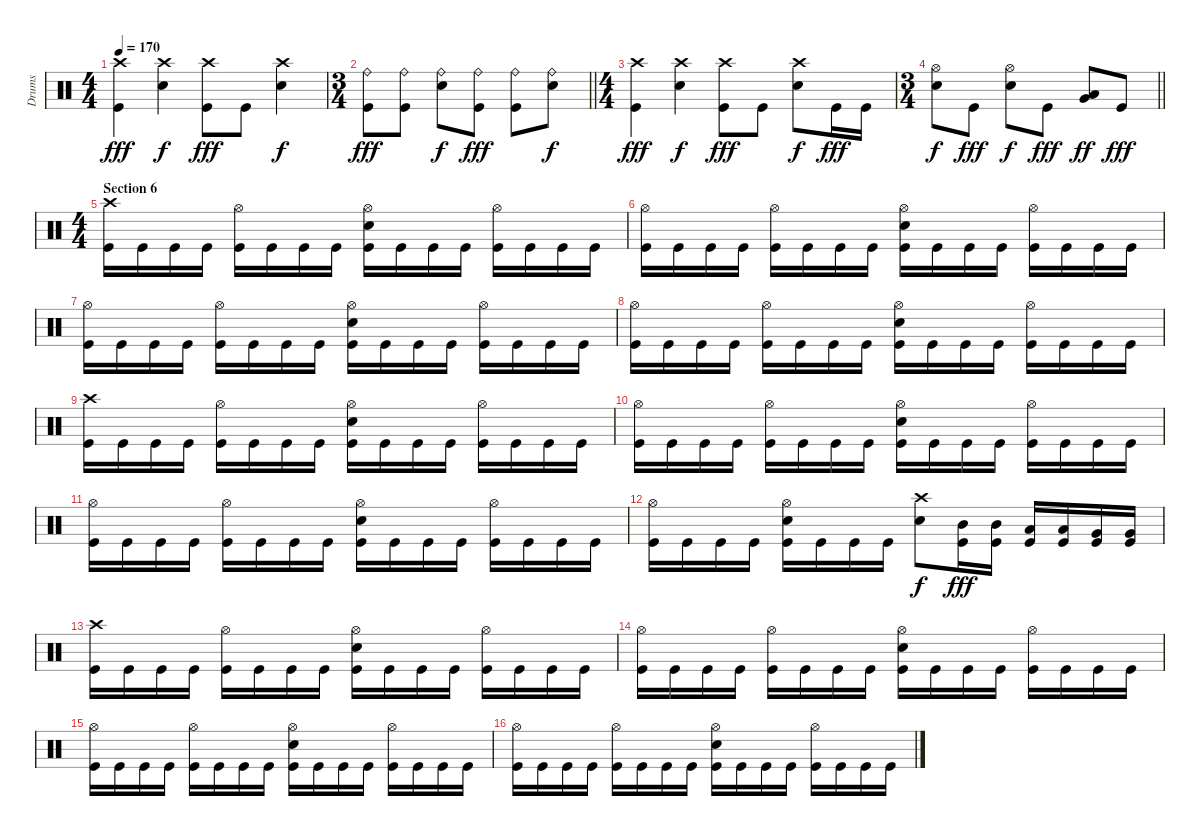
\track ("Drums" "Drums") {instrument percussion}
\staff {score}
\articulation defaults
\ts (4 4)
\tempo 170
\clef neutral
\ks c
("Crash high (hit)" "Kick (hit)").4{dy fff} ("Crash high (hit)" "Snare (hit) 2").4{dy f} ("Crash high (hit)" "Kick (hit)").8{dy fff} "Kick (hit)".8 ("Crash high (hit)" "Snare (hit) 2").4{dy f} |
\ts (3 4)
\barLineRight lightlight
("Ride (bell)" "Kick (hit)").8{dy fff} ("Ride (bell)" "Kick (hit)").8 ("Ride (bell)" "Snare (hit) 2").8{dy f} ("Ride (bell)" "Kick (hit)").8{dy fff} ("Ride (bell)" "Kick (hit)").8 ("Ride (bell)" "Snare (hit) 2").8{dy f} |
\ts (4 4)
("Crash high (hit)" "Kick (hit)").4{dy fff} ("Crash high (hit)" "Snare (hit) 2").4{dy f} ("Crash high (hit)" "Kick (hit)").8{dy fff} "Kick (hit)".8 ("Crash high (hit)" "Snare (hit) 2").8{dy f} "Kick (hit)".16{dy fff} "Kick (hit)".16 |
\ts (3 4)
\barLineRight lightlight
("Hi-Hat (open)" "Snare (hit) 2").8{dy f} "Kick (hit)".8{dy fff} ("Hi-Hat (open)" "Snare (hit) 2").8{dy f} "Kick (hit)".8{dy fff} ("Low Tom (hit)" "Very Low Tom (hit)").8{bd 120 dy ff} "Kick (hit)".8{dy fff} |
\ts (4 4)
\section ("" "Section 6")
("Crash high (hit)" "Kick (hit)").16 "Kick (hit)".16 "Kick (hit)".16 "Kick (hit)".16 ("Hi-Hat (open)" "Kick (hit)").16 "Kick (hit)".16 "Kick (hit)".16 "Kick (hit)".16 ("Hi-Hat (open)" "Snare (hit) 2" "Kick (hit)").16 "Kick (hit)".16 "Kick (hit)".16 "Kick (hit)".16 ("Hi-Hat (open)" "Kick (hit)").16 "Kick (hit)".16 "Kick (hit)".16 "Kick (hit)".16 |
("Hi-Hat (open)" "Kick (hit)").16 "Kick (hit)".16 "Kick (hit)".16 "Kick (hit)".16 ("Hi-Hat (open)" "Kick (hit)").16 "Kick (hit)".16 "Kick (hit)".16 "Kick (hit)".16 ("Hi-Hat (open)" "Snare (hit) 2" "Kick (hit)").16 "Kick (hit)".16 "Kick (hit)".16 "Kick (hit)".16 ("Hi-Hat (open)" "Kick (hit)").16 "Kick (hit)".16 "Kick (hit)".16 "Kick (hit)".16 |
("Hi-Hat (open)" "Kick (hit)").16 "Kick (hit)".16 "Kick (hit)".16 "Kick (hit)".16 ("Hi-Hat (open)" "Kick (hit)").16 "Kick (hit)".16 "Kick (hit)".16 "Kick (hit)".16 ("Hi-Hat (open)" "Snare (hit) 2" "Kick (hit)").16 "Kick (hit)".16 "Kick (hit)".16 "Kick (hit)".16 ("Hi-Hat (open)" "Kick (hit)").16 "Kick (hit)".16 "Kick (hit)".16 "Kick (hit)".16 |
("Hi-Hat (open)" "Kick (hit)").16 "Kick (hit)".16 "Kick (hit)".16 "Kick (hit)".16 ("Hi-Hat (open)" "Kick (hit)").16 "Kick (hit)".16 "Kick (hit)".16 "Kick (hit)".16 ("Hi-Hat (open)" "Snare (hit) 2" "Kick (hit)").16 "Kick (hit)".16 "Kick (hit)".16 "Kick (hit)".16 ("Hi-Hat (open)" "Kick (hit)").16 "Kick (hit)".16 "Kick (hit)".16 "Kick (hit)".16 |
("Crash high (hit)" "Kick (hit)").16 "Kick (hit)".16 "Kick (hit)".16 "Kick (hit)".16 ("Hi-Hat (open)" "Kick (hit)").16 "Kick (hit)".16 "Kick (hit)".16 "Kick (hit)".16 ("Hi-Hat (open)" "Snare (hit) 2" "Kick (hit)").16 "Kick (hit)".16 "Kick (hit)".16 "Kick (hit)".16 ("Hi-Hat (open)" "Kick (hit)").16 "Kick (hit)".16 "Kick (hit)".16 "Kick (hit)".16 |
("Hi-Hat (open)" "Kick (hit)").16 "Kick (hit)".16 "Kick (hit)".16 "Kick (hit)".16 ("Hi-Hat (open)" "Kick (hit)").16 "Kick (hit)".16 "Kick (hit)".16 "Kick (hit)".16 ("Hi-Hat (open)" "Snare (hit) 2" "Kick (hit)").16 "Kick (hit)".16 "Kick (hit)".16 "Kick (hit)".16 ("Hi-Hat (open)" "Kick (hit)").16 "Kick (hit)".16 "Kick (hit)".16 "Kick (hit)".16 |
("Hi-Hat (open)" "Kick (hit)").16 "Kick (hit)".16 "Kick (hit)".16 "Kick (hit)".16 ("Hi-Hat (open)" "Kick (hit)").16 "Kick (hit)".16 "Kick (hit)".16 "Kick (hit)".16 ("Hi-Hat (open)" "Snare (hit) 2" "Kick (hit)").16 "Kick (hit)".16 "Kick (hit)".16 "Kick (hit)".16 ("Hi-Hat (open)" "Kick (hit)").16 "Kick (hit)".16 "Kick (hit)".16 "Kick (hit)".16 |
("Hi-Hat (open)" "Kick (hit)").16 "Kick (hit)".16 "Kick (hit)".16 "Kick (hit)".16 ("Hi-Hat (open)" "Snare (hit) 2" "Kick (hit)").16 "Kick (hit)".16 "Kick (hit)".16 "Kick (hit)".16 ("Crash high (hit)" "Snare (hit) 2").8{dy f} ("Mid Tom (hit)" "Kick (hit)").16{dy fff} ("Mid Tom (hit)" "Kick (hit)").16 ("Low Tom (hit)" "Kick (hit)").16 ("Low Tom (hit)" "Kick (hit)").16 ("Very Low Tom (hit)" "Kick (hit)").16 ("Very Low Tom (hit)" "Kick (hit)").16 |
("Crash high (hit)" "Kick (hit)").16 "Kick (hit)".16 "Kick (hit)".16 "Kick (hit)".16 ("Hi-Hat (open)" "Kick (hit)").16 "Kick (hit)".16 "Kick (hit)".16 "Kick (hit)".16 ("Hi-Hat (open)" "Snare (hit) 2" "Kick (hit)").16 "Kick (hit)".16 "Kick (hit)".16 "Kick (hit)".16 ("Hi-Hat (open)" "Kick (hit)").16 "Kick (hit)".16 "Kick (hit)".16 "Kick (hit)".16 |
("Hi-Hat (open)" "Kick (hit)").16 "Kick (hit)".16 "Kick (hit)".16 "Kick (hit)".16 ("Hi-Hat (open)" "Kick (hit)").16 "Kick (hit)".16 "Kick (hit)".16 "Kick (hit)".16 ("Hi-Hat (open)" "Snare (hit) 2" "Kick (hit)").16 "Kick (hit)".16 "Kick (hit)".16 "Kick (hit)".16 ("Hi-Hat (open)" "Kick (hit)").16 "Kick (hit)".16 "Kick (hit)".16 "Kick (hit)".16 |
("Hi-Hat (open)" "Kick (hit)").16 "Kick (hit)".16 "Kick (hit)".16 "Kick (hit)".16 ("Hi-Hat (open)" "Kick (hit)").16 "Kick (hit)".16 "Kick (hit)".16 "Kick (hit)".16 ("Hi-Hat (open)" "Snare (hit) 2" "Kick (hit)").16 "Kick (hit)".16 "Kick (hit)".16 "Kick (hit)".16 ("Hi-Hat (open)" "Kick (hit)").16 "Kick (hit)".16 "Kick (hit)".16 "Kick (hit)".16 |
("Hi-Hat (open)" "Kick (hit)").16 "Kick (hit)".16 "Kick (hit)".16 "Kick (hit)".16 ("Hi-Hat (open)" "Kick (hit)").16 "Kick (hit)".16 "Kick (hit)".16 "Kick (hit)".16 ("Hi-Hat (open)" "Snare (hit) 2" "Kick (hit)").16 "Kick (hit)".16 "Kick (hit)".16 "Kick (hit)".16 ("Hi-Hat (open)" "Kick (hit)").16 "Kick (hit)".16 "Kick (hit)".16 "Kick (hit)".16
